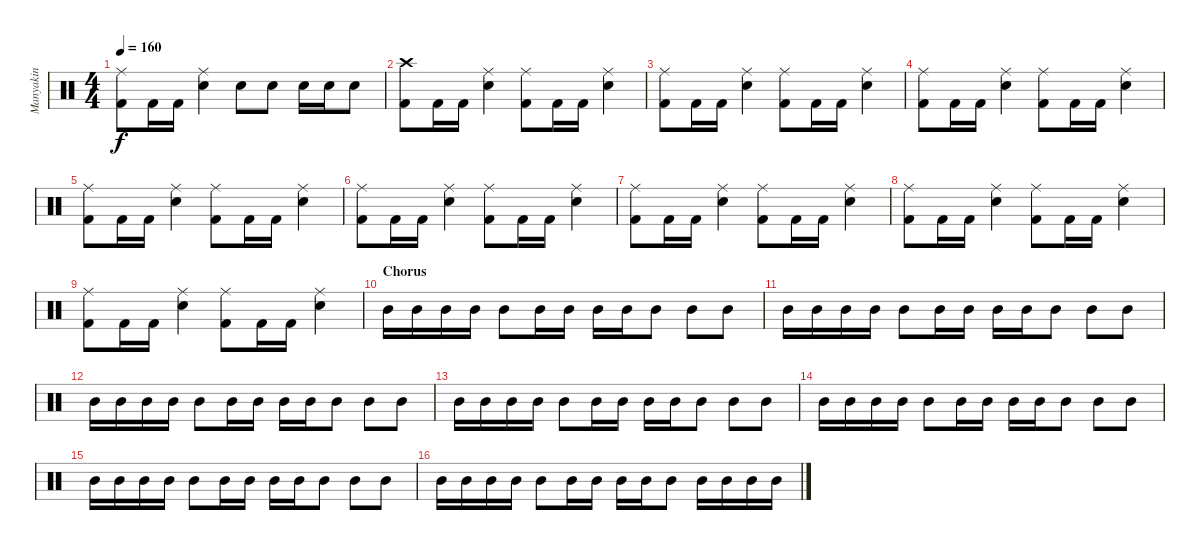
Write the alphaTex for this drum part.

\track ("Manyakin" "Manyakin") {instrument percussion}
\staff {score}
\articulation defaults
\ts (4 4)
\tempo 160
\clef neutral
\ks c
("Kick (hit) 2" "Ride (middle)").8{dy f} "Kick (hit) 2".16 "Kick (hit) 2".16 ("Snare (hit) 2" "Ride (middle)").4 "Snare (hit) 2".8 "Snare (hit) 2".8 "Snare (hit) 2".16 "Snare (hit) 2".16 "Snare (hit) 2".8 |
("Kick (hit) 2" "Crash high (hit)").8 "Kick (hit) 2".16 "Kick (hit) 2".16 ("Snare (hit) 2" "Ride (middle)").4 ("Kick (hit) 2" "Ride (middle)").8 "Kick (hit) 2".16 "Kick (hit) 2".16 ("Snare (hit) 2" "Ride (middle)").4 |
("Kick (hit) 2" "Ride (middle)").8 "Kick (hit) 2".16 "Kick (hit) 2".16 ("Snare (hit) 2" "Ride (middle)").4 ("Kick (hit) 2" "Ride (middle)").8 "Kick (hit) 2".16 "Kick (hit) 2".16 ("Snare (hit) 2" "Ride (middle)").4 |
("Kick (hit) 2" "Ride (middle)").8 "Kick (hit) 2".16 "Kick (hit) 2".16 ("Snare (hit) 2" "Ride (middle)").4 ("Kick (hit) 2" "Ride (middle)").8 "Kick (hit) 2".16 "Kick (hit) 2".16 ("Snare (hit) 2" "Ride (middle)").4 |
("Kick (hit) 2" "Ride (middle)").8 "Kick (hit) 2".16 "Kick (hit) 2".16 ("Snare (hit) 2" "Ride (middle)").4 ("Kick (hit) 2" "Ride (middle)").8 "Kick (hit) 2".16 "Kick (hit) 2".16 ("Snare (hit) 2" "Ride (middle)").4 |
("Kick (hit) 2" "Ride (middle)").8 "Kick (hit) 2".16 "Kick (hit) 2".16 ("Snare (hit) 2" "Ride (middle)").4 ("Kick (hit) 2" "Ride (middle)").8 "Kick (hit) 2".16 "Kick (hit) 2".16 ("Snare (hit) 2" "Ride (middle)").4 |
("Kick (hit) 2" "Ride (middle)").8 "Kick (hit) 2".16 "Kick (hit) 2".16 ("Snare (hit) 2" "Ride (middle)").4 ("Kick (hit) 2" "Ride (middle)").8 "Kick (hit) 2".16 "Kick (hit) 2".16 ("Snare (hit) 2" "Ride (middle)").4 |
("Kick (hit) 2" "Ride (middle)").8 "Kick (hit) 2".16 "Kick (hit) 2".16 ("Snare (hit) 2" "Ride (middle)").4 ("Kick (hit) 2" "Ride (middle)").8 "Kick (hit) 2".16 "Kick (hit) 2".16 ("Snare (hit) 2" "Ride (middle)").4 |
("Kick (hit) 2" "Ride (middle)").8 "Kick (hit) 2".16 "Kick (hit) 2".16 ("Snare (hit) 2" "Ride (middle)").4 ("Kick (hit) 2" "Ride (middle)").8 "Kick (hit) 2".16 "Kick (hit) 2".16 ("Snare (hit) 2" "Ride (middle)").4 |
\section ("" "Chorus")
"Mid Tom (hit)".16 "Mid Tom (hit)".16 "Mid Tom (hit)".16 "Mid Tom (hit)".16 "Mid Tom (hit)".8 "Mid Tom (hit)".16 "Mid Tom (hit)".16 "Mid Tom (hit)".16 "Mid Tom (hit)".16 "Mid Tom (hit)".8 "Mid Tom (hit)".8 "Mid Tom (hit)".8 |
"Mid Tom (hit)".16 "Mid Tom (hit)".16 "Mid Tom (hit)".16 "Mid Tom (hit)".16 "Mid Tom (hit)".8 "Mid Tom (hit)".16 "Mid Tom (hit)".16 "Mid Tom (hit)".16 "Mid Tom (hit)".16 "Mid Tom (hit)".8 "Mid Tom (hit)".8 "Mid Tom (hit)".8 |
"Mid Tom (hit)".16 "Mid Tom (hit)".16 "Mid Tom (hit)".16 "Mid Tom (hit)".16 "Mid Tom (hit)".8 "Mid Tom (hit)".16 "Mid Tom (hit)".16 "Mid Tom (hit)".16 "Mid Tom (hit)".16 "Mid Tom (hit)".8 "Mid Tom (hit)".8 "Mid Tom (hit)".8 |
"Mid Tom (hit)".16 "Mid Tom (hit)".16 "Mid Tom (hit)".16 "Mid Tom (hit)".16 "Mid Tom (hit)".8 "Mid Tom (hit)".16 "Mid Tom (hit)".16 "Mid Tom (hit)".16 "Mid Tom (hit)".16 "Mid Tom (hit)".8 "Mid Tom (hit)".8 "Mid Tom (hit)".8 |
"Mid Tom (hit)".16 "Mid Tom (hit)".16 "Mid Tom (hit)".16 "Mid Tom (hit)".16 "Mid Tom (hit)".8 "Mid Tom (hit)".16 "Mid Tom (hit)".16 "Mid Tom (hit)".16 "Mid Tom (hit)".16 "Mid Tom (hit)".8 "Mid Tom (hit)".8 "Mid Tom (hit)".8 |
"Mid Tom (hit)".16 "Mid Tom (hit)".16 "Mid Tom (hit)".16 "Mid Tom (hit)".16 "Mid Tom (hit)".8 "Mid Tom (hit)".16 "Mid Tom (hit)".16 "Mid Tom (hit)".16 "Mid Tom (hit)".16 "Mid Tom (hit)".8 "Mid Tom (hit)".8 "Mid Tom (hit)".8 |
"Mid Tom (hit)".16 "Mid Tom (hit)".16 "Mid Tom (hit)".16 "Mid Tom (hit)".16 "Mid Tom (hit)".8 "Mid Tom (hit)".16 "Mid Tom (hit)".16 "Mid Tom (hit)".16 "Mid Tom (hit)".16 "Mid Tom (hit)".8 "Mid Tom (hit)".16 "Mid Tom (hit)".16 "Mid Tom (hit)".16 "Mid Tom (hit)".16
